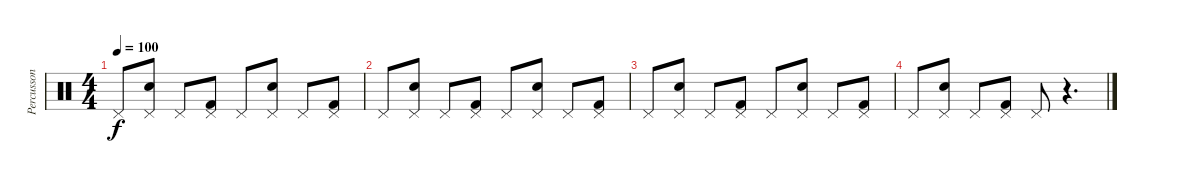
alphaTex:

\track ("Percusson" "Percusson") {instrument percussion}
\staff {score}
\articulation defaults
\ts (4 4)
\tempo 100
\clef neutral
\ks c "Pedal Hi-Hat (hit)".8{dy f}
("Pedal Hi-Hat (hit)" "Electric Snare (hit)").8 "Pedal Hi-Hat (hit)".8 ("Pedal Hi-Hat (hit)" "Kick (hit) 2").8 "Pedal Hi-Hat (hit)".8 ("Pedal Hi-Hat (hit)" "Electric Snare (hit)").8 "Pedal Hi-Hat (hit)".8 ("Pedal Hi-Hat (hit)" "Kick (hit) 2").8 |
"Pedal Hi-Hat (hit)".8 ("Pedal Hi-Hat (hit)" "Electric Snare (hit)").8 "Pedal Hi-Hat (hit)".8 ("Pedal Hi-Hat (hit)" "Kick (hit) 2").8 "Pedal Hi-Hat (hit)".8 ("Pedal Hi-Hat (hit)" "Electric Snare (hit)").8 "Pedal Hi-Hat (hit)".8 ("Pedal Hi-Hat (hit)" "Kick (hit) 2").8 |
"Pedal Hi-Hat (hit)".8 ("Pedal Hi-Hat (hit)" "Electric Snare (hit)").8 "Pedal Hi-Hat (hit)".8 ("Pedal Hi-Hat (hit)" "Kick (hit) 2").8 "Pedal Hi-Hat (hit)".8 ("Pedal Hi-Hat (hit)" "Electric Snare (hit)").8 "Pedal Hi-Hat (hit)".8 ("Pedal Hi-Hat (hit)" "Kick (hit) 2").8 |
"Pedal Hi-Hat (hit)".8 ("Pedal Hi-Hat (hit)" "Electric Snare (hit)").8 "Pedal Hi-Hat (hit)".8 ("Pedal Hi-Hat (hit)" "Kick (hit) 2").8 "Pedal Hi-Hat (hit)".8 r.4{d}
